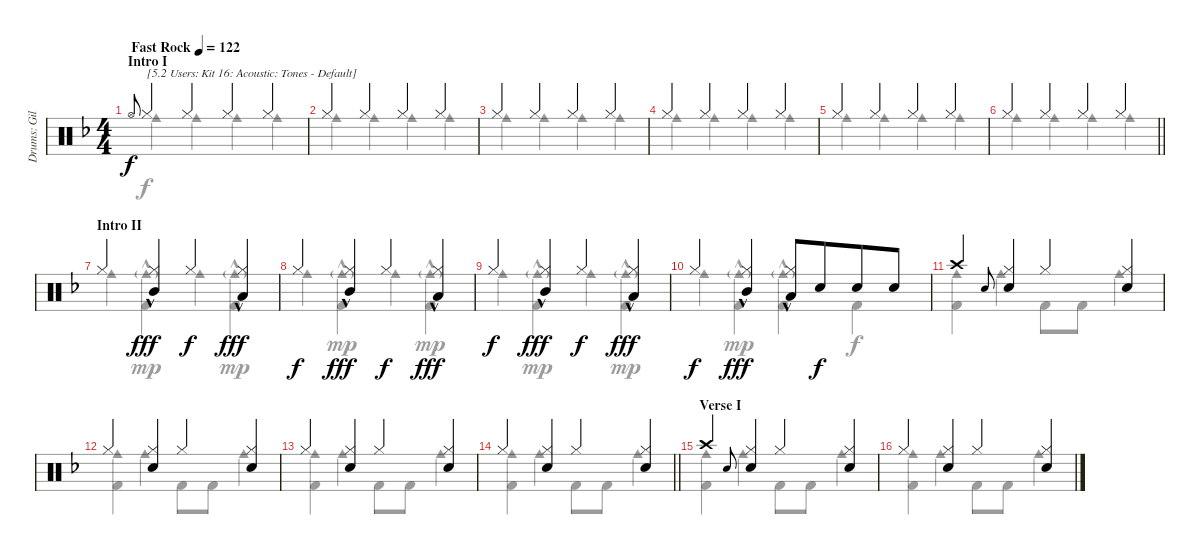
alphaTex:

\track ("Drums: Gil" "Drums: Gil") {instrument percussion}
\staff {score}
\articulation defaults
\voice
\ts (4 4)
\section ("" "Intro I")
\tempo (122 "Fast Rock")
\clef neutral
\ks f "Hi-Hat (open)".8{gr onbeat dy f} "Hi-Hat (closed)".4{txt "[5.2 Users: Kit 16: Acoustic: Tones - Default]"} "Hi-Hat (closed)".4 "Hi-Hat (closed)".4 "Hi-Hat (closed)".4
|
"Hi-Hat (closed)".4 "Hi-Hat (closed)".4 "Hi-Hat (closed)".4 "Hi-Hat (closed)".4 |
"Hi-Hat (closed)".4 "Hi-Hat (closed)".4 "Hi-Hat (closed)".4 "Hi-Hat (closed)".4 |
"Hi-Hat (closed)".4 "Hi-Hat (closed)".4 "Hi-Hat (closed)".4 "Hi-Hat (closed)".4 |
"Hi-Hat (closed)".4 "Hi-Hat (closed)".4 "Hi-Hat (closed)".4 "Hi-Hat (closed)".4 |
\barLineRight lightlight "Hi-Hat (closed)".4 "Hi-Hat (closed)".4 "Hi-Hat (closed)".4 "Hi-Hat (closed)".4
|
\section ("" "Intro II")
"Hi-Hat (closed)".4 ("Hi-Hat (closed)" "Mid Tom (hit)"{hac}).4{dy fff} "Hi-Hat (closed)".4{dy f} ("Hi-Hat (closed)" "Low Tom (hit)"{hac}).4{dy fff} |
"Hi-Hat (closed)".4{dy f} ("Hi-Hat (closed)" "Mid Tom (hit)"{hac}).4{dy fff} "Hi-Hat (closed)".4{dy f} ("Hi-Hat (closed)" "Low Tom (hit)"{hac}).4{dy fff} |
"Hi-Hat (closed)".4{dy f} ("Hi-Hat (closed)" "Mid Tom (hit)"{hac}).4{dy fff} "Hi-Hat (closed)".4{dy f} ("Hi-Hat (closed)" "Low Tom (hit)"{hac}).4{dy fff} |
"Hi-Hat (closed)".4{dy f} ("Hi-Hat (closed)" "Mid Tom (hit)"{hac}).4{dy fff} ("Hi-Hat (closed)" "Low Tom (hit)"{hac}).8 "Snare (hit) 2".8{dy f beam merge} "Snare (hit) 2".8 "Snare (hit) 2".8 |
"Crash high (hit)".4 "Electric Snare (hit)".8{gr onbeat} ("Hi-Hat (closed)" "Snare (hit) 2").4 "Hi-Hat (closed)".4 ("Hi-Hat (closed)" "Snare (hit) 2").4 |
"Hi-Hat (closed)".4 ("Hi-Hat (closed)" "Snare (hit) 2").4 "Hi-Hat (closed)".4 ("Hi-Hat (closed)" "Snare (hit) 2").4 |
"Hi-Hat (closed)".4 ("Hi-Hat (closed)" "Snare (hit) 2").4 "Hi-Hat (closed)".4 ("Hi-Hat (closed)" "Snare (hit) 2").4 |
\barLineRight lightlight "Hi-Hat (closed)".4
("Hi-Hat (closed)" "Snare (hit) 2").4 "Hi-Hat (closed)".4 ("Hi-Hat (closed)" "Snare (hit) 2").4 |
\section ("" "Verse I")
"Crash high (hit)".4 "Electric Snare (hit)".8{gr onbeat} ("Hi-Hat (closed)" "Snare (hit) 2").4 "Hi-Hat (closed)".4 ("Hi-Hat (closed)" "Snare (hit) 2").4 |
"Hi-Hat (closed)".4 ("Hi-Hat (closed)" "Snare (hit) 2").4 "Hi-Hat (closed)".4 ("Hi-Hat (closed)" "Snare (hit) 2").4
\voice
\clef neutral
\ottava regular
\simile none
\ks f "Cowbell medium (hit)".4{dy f} "Cowbell medium (hit)".4 "Cowbell medium (hit)".4 "Cowbell medium (hit)".4
|
"Cowbell medium (hit)".4 "Cowbell medium (hit)".4 "Cowbell medium (hit)".4 "Cowbell medium (hit)".4 |
"Cowbell medium (hit)".4 "Cowbell medium (hit)".4 "Cowbell medium (hit)".4 "Cowbell medium (hit)".4 |
"Cowbell medium (hit)".4 "Cowbell medium (hit)".4 "Cowbell medium (hit)".4 "Cowbell medium (hit)".4 |
"Cowbell medium (hit)".4 "Cowbell medium (hit)".4 "Cowbell medium (hit)".4 "Cowbell medium (hit)".4 |
\barLineRight lightlight "Cowbell medium (hit)".4 "Cowbell medium (hit)".4 "Cowbell medium (hit)".4 "Cowbell medium (hit)".4
|
"Cowbell medium (hit)".4 ("Kick (hit) 2"{hac} "Cowbell medium (hit)"{g}).4{dy mp} "Cowbell medium (hit)".4{dy f} ("Kick (hit) 2"{hac} "Cowbell medium (hit)"{g}).4{dy mp} |
"Cowbell medium (hit)".4{dy f} ("Kick (hit) 2"{hac} "Cowbell medium (hit)"{g}).4{dy mp} "Cowbell medium (hit)".4{dy f} ("Kick (hit) 2"{hac} "Cowbell medium (hit)"{g}).4{dy mp} |
"Cowbell medium (hit)".4{dy f} ("Kick (hit) 2"{hac} "Cowbell medium (hit)"{g}).4{dy mp} "Cowbell medium (hit)".4{dy f} ("Kick (hit) 2"{hac} "Cowbell medium (hit)"{g}).4{dy mp} |
"Cowbell medium (hit)".4{dy f} ("Kick (hit) 2"{hac} "Cowbell medium (hit)"{g}).4{dy mp} ("Kick (hit) 2"{hac} "Cowbell medium (hit)"{g}).4 "Kick (hit) 2".4{dy f} |
("Kick (hit) 2" "Cowbell medium (hit)").4 "Cowbell medium (hit)".4 "Kick (hit) 2".8 "Kick (hit) 2".8 "Cowbell medium (hit)".4 |
("Kick (hit) 2" "Cowbell medium (hit)").4 "Cowbell medium (hit)".4 "Kick (hit) 2".8 "Kick (hit) 2".8 "Cowbell medium (hit)".4 |
("Kick (hit) 2" "Cowbell medium (hit)").4 "Cowbell medium (hit)".4 "Kick (hit) 2".8 "Kick (hit) 2".8 "Cowbell medium (hit)".4 |
\barLineRight lightlight
("Kick (hit) 2" "Cowbell medium (hit)").4 "Cowbell medium (hit)".4 "Kick (hit) 2".8 "Kick (hit) 2".8 "Cowbell medium (hit)".4 |
("Kick (hit) 2" "Cowbell medium (hit)").4 "Cowbell medium (hit)".4 "Kick (hit) 2".8 "Kick (hit) 2".8 "Cowbell medium (hit)".4 |
("Kick (hit) 2" "Cowbell medium (hit)").4 "Cowbell medium (hit)".4 "Kick (hit) 2".8 "Kick (hit) 2".8 "Cowbell medium (hit)".4
